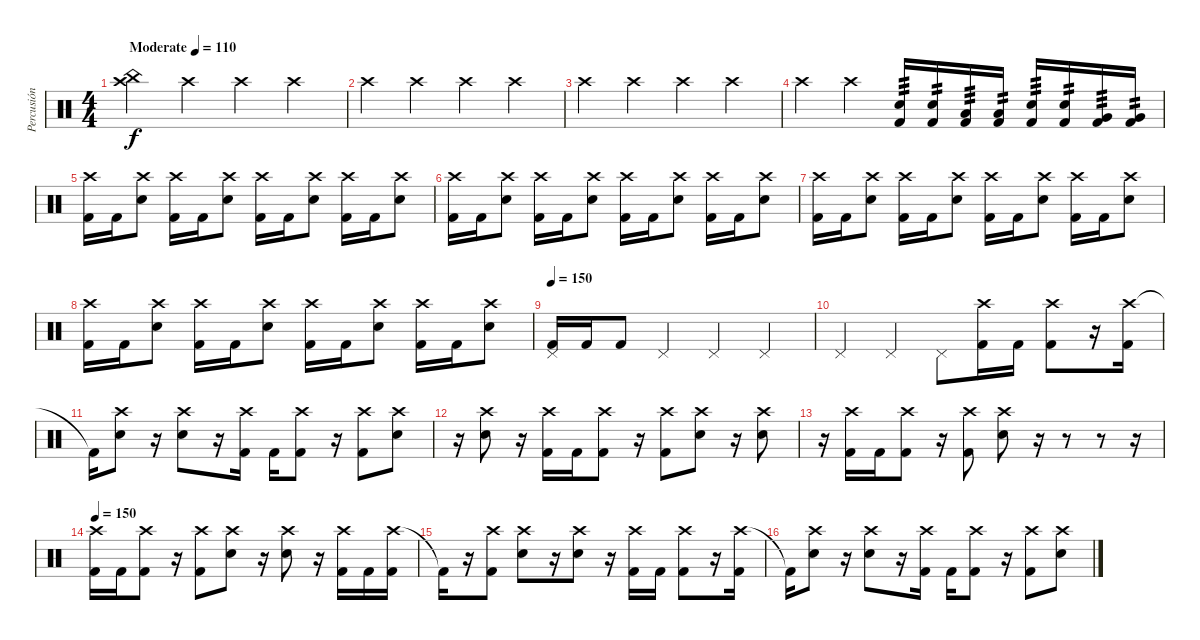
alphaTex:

\track ("Percusión" "Percusión") {instrument percussion}
\staff {score}
\articulation defaults
\ts (4 4)
\tempo (110 "Moderate")
\clef neutral
\ks c
("Crash high (hit)" "China (hit)").4{dy f} "Crash high (hit)".4 "Crash high (hit)".4 "Crash high (hit)".4 |
"Crash high (hit)".4 "Crash high (hit)".4 "Crash high (hit)".4 "Crash high (hit)".4 |
"Crash high (hit)".4 "Crash high (hit)".4 "Crash high (hit)".4 "Crash high (hit)".4 |
"Crash high (hit)".4 "Crash high (hit)".4 ("Electric Snare (hit)" "Kick (hit) 2").16{tp 3} ("Electric Snare (hit)" "Kick (hit) 2").16{tp 2} ("Low Floor Tom (hit)" "Kick (hit) 2").16{tp 3} ("Low Floor Tom (hit)" "Kick (hit) 2").16{tp 2} ("Electric Snare (hit)" "Kick (hit) 2").16{tp 3} ("Electric Snare (hit)" "Kick (hit) 2").16{tp 2} ("Very Low Tom (hit)" "Kick (hit) 2").16{tp 3} ("Very Low Tom (hit)" "Kick (hit) 2").16{tp 2} |
("Crash high (hit)" "Kick (hit) 2").16 "Kick (hit) 2".16 ("Crash high (hit)" "Electric Snare (hit)").8 ("Crash high (hit)" "Kick (hit) 2").16 "Kick (hit) 2".16 ("Crash high (hit)" "Electric Snare (hit)").8 ("Crash high (hit)" "Kick (hit) 2").16 "Kick (hit) 2".16 ("Crash high (hit)" "Electric Snare (hit)").8 ("Crash high (hit)" "Kick (hit) 2").16 "Kick (hit) 2".16 ("Crash high (hit)" "Electric Snare (hit)").8 |
("Crash high (hit)" "Kick (hit) 2").16 "Kick (hit) 2".16 ("Crash high (hit)" "Electric Snare (hit)").8 ("Crash high (hit)" "Kick (hit) 2").16 "Kick (hit) 2".16 ("Crash high (hit)" "Electric Snare (hit)").8 ("Crash high (hit)" "Kick (hit) 2").16 "Kick (hit) 2".16 ("Crash high (hit)" "Electric Snare (hit)").8 ("Crash high (hit)" "Kick (hit) 2").16 "Kick (hit) 2".16 ("Crash high (hit)" "Electric Snare (hit)").8 |
("Crash high (hit)" "Kick (hit) 2").16 "Kick (hit) 2".16 ("Crash high (hit)" "Electric Snare (hit)").8 ("Crash high (hit)" "Kick (hit) 2").16 "Kick (hit) 2".16 ("Crash high (hit)" "Electric Snare (hit)").8 ("Crash high (hit)" "Kick (hit) 2").16 "Kick (hit) 2".16 ("Crash high (hit)" "Electric Snare (hit)").8 ("Crash high (hit)" "Kick (hit) 2").16 "Kick (hit) 2".16 ("Crash high (hit)" "Electric Snare (hit)").8 |
("Crash high (hit)" "Kick (hit) 2").16 "Kick (hit) 2".16 ("Crash high (hit)" "Electric Snare (hit)").8 ("Crash high (hit)" "Kick (hit) 2").16 "Kick (hit) 2".16 ("Crash high (hit)" "Electric Snare (hit)").8 ("Crash high (hit)" "Kick (hit) 2").16 "Kick (hit) 2".16 ("Crash high (hit)" "Electric Snare (hit)").8 ("Crash high (hit)" "Kick (hit) 2").16 "Kick (hit) 2".16 ("Crash high (hit)" "Electric Snare (hit)").8 |
\tempo 150
("Pedal Hi-Hat (hit)" "Kick (hit) 2").16 "Kick (hit) 2".16 "Kick (hit) 2".8 "Pedal Hi-Hat (hit)".4 "Pedal Hi-Hat (hit)".4 "Pedal Hi-Hat (hit)".4 |
"Pedal Hi-Hat (hit)".4 "Pedal Hi-Hat (hit)".4 "Pedal Hi-Hat (hit)".8 ("Crash high (hit)" "Kick (hit) 2").16 "Kick (hit) 2".16 ("Crash high (hit)" "Kick (hit) 2").8 r.16 ("Crash high (hit)" "Kick (hit) 2").16 |
"Kick (hit) 2"{t}.16 ("Crash high (hit)" "Electric Snare (hit)").8 r.16 ("Crash high (hit)" "Electric Snare (hit)").8 r.16 ("Crash high (hit)" "Kick (hit) 2").16 "Kick (hit) 2".16 ("Crash high (hit)" "Kick (hit) 2").8 r.16 ("Crash high (hit)" "Kick (hit) 2").8 ("Crash high (hit)" "Electric Snare (hit)").8 |
r.16 ("Crash high (hit)" "Electric Snare (hit)").8 r.16 ("Crash high (hit)" "Kick (hit) 2").16 "Kick (hit) 2".16 ("Crash high (hit)" "Kick (hit) 2").8 r.16 ("Crash high (hit)" "Kick (hit) 2").8 ("Crash high (hit)" "Electric Snare (hit)").8 r.16 ("Crash high (hit)" "Electric Snare (hit)").8 |
r.16 ("Crash high (hit)" "Kick (hit) 2").16 "Kick (hit) 2".16 ("Crash high (hit)" "Kick (hit) 2").8 r.16 ("Crash high (hit)" "Kick (hit) 2").8 ("Crash high (hit)" "Electric Snare (hit)").8 r.16 r.8 r.8 r.16 |
\tempo 150
("Crash high (hit)" "Kick (hit) 2").16 "Kick (hit) 2".16 ("Crash high (hit)" "Kick (hit) 2").8 r.16 ("Crash high (hit)" "Kick (hit) 2").8 ("Crash high (hit)" "Electric Snare (hit)").8 r.16 ("Crash high (hit)" "Electric Snare (hit)").8 r.16 ("Crash high (hit)" "Kick (hit) 2").16 "Kick (hit) 2".16 ("Crash high (hit)" "Kick (hit) 2").16 |
"Kick (hit) 2"{t}.16 r.16 ("Crash high (hit)" "Kick (hit) 2").8 ("Crash high (hit)" "Electric Snare (hit)").8 r.16 ("Crash high (hit)" "Electric Snare (hit)").8 r.16 ("Crash high (hit)" "Kick (hit) 2").16 "Kick (hit) 2".16 ("Crash high (hit)" "Kick (hit) 2").8 r.16 ("Crash high (hit)" "Kick (hit) 2").16 |
"Kick (hit) 2"{t}.16 ("Crash high (hit)" "Electric Snare (hit)").8 r.16 ("Crash high (hit)" "Electric Snare (hit)").8 r.16 ("Crash high (hit)" "Kick (hit) 2").16 "Kick (hit) 2".16 ("Crash high (hit)" "Kick (hit) 2").8 r.16 ("Crash high (hit)" "Kick (hit) 2").8 ("Crash high (hit)" "Electric Snare (hit)").8
